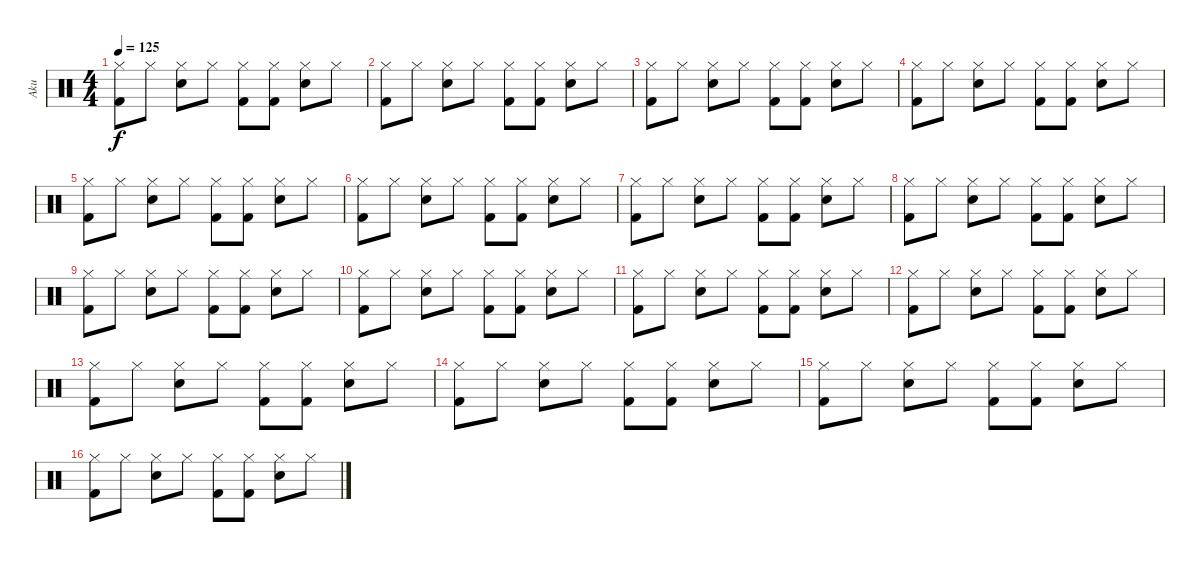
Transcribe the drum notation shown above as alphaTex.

\track ("Aku" "Aku") {instrument percussion}
\staff {score}
\articulation defaults
\ts (4 4)
\tempo 125
\clef neutral
\ks c
("Hi-Hat (closed)" "Kick (hit) 2").8{dy f} "Hi-Hat (closed)".8 ("Hi-Hat (closed)" "Snare (hit) 2").8 "Hi-Hat (closed)".8 ("Hi-Hat (closed)" "Kick (hit) 2").8 ("Hi-Hat (closed)" "Kick (hit) 2").8 ("Hi-Hat (closed)" "Snare (hit) 2").8 "Hi-Hat (closed)".8 |
("Hi-Hat (closed)" "Kick (hit) 2").8 "Hi-Hat (closed)".8 ("Hi-Hat (closed)" "Snare (hit) 2").8 "Hi-Hat (closed)".8 ("Hi-Hat (closed)" "Kick (hit) 2").8 ("Hi-Hat (closed)" "Kick (hit) 2").8 ("Hi-Hat (closed)" "Snare (hit) 2").8 "Hi-Hat (closed)".8 |
("Hi-Hat (closed)" "Kick (hit) 2").8 "Hi-Hat (closed)".8 ("Hi-Hat (closed)" "Snare (hit) 2").8 "Hi-Hat (closed)".8 ("Hi-Hat (closed)" "Kick (hit) 2").8 ("Hi-Hat (closed)" "Kick (hit) 2").8 ("Hi-Hat (closed)" "Snare (hit) 2").8 "Hi-Hat (closed)".8 |
("Hi-Hat (closed)" "Kick (hit) 2").8 "Hi-Hat (closed)".8 ("Hi-Hat (closed)" "Snare (hit) 2").8 "Hi-Hat (closed)".8 ("Hi-Hat (closed)" "Kick (hit) 2").8 ("Hi-Hat (closed)" "Kick (hit) 2").8 ("Hi-Hat (closed)" "Snare (hit) 2").8 "Hi-Hat (closed)".8 |
("Hi-Hat (closed)" "Kick (hit) 2").8 "Hi-Hat (closed)".8 ("Hi-Hat (closed)" "Snare (hit) 2").8 "Hi-Hat (closed)".8 ("Hi-Hat (closed)" "Kick (hit) 2").8 ("Hi-Hat (closed)" "Kick (hit) 2").8 ("Hi-Hat (closed)" "Snare (hit) 2").8 "Hi-Hat (closed)".8 |
("Hi-Hat (closed)" "Kick (hit) 2").8 "Hi-Hat (closed)".8 ("Hi-Hat (closed)" "Snare (hit) 2").8 "Hi-Hat (closed)".8 ("Hi-Hat (closed)" "Kick (hit) 2").8 ("Hi-Hat (closed)" "Kick (hit) 2").8 ("Hi-Hat (closed)" "Snare (hit) 2").8 "Hi-Hat (closed)".8 |
("Hi-Hat (closed)" "Kick (hit) 2").8 "Hi-Hat (closed)".8 ("Hi-Hat (closed)" "Snare (hit) 2").8 "Hi-Hat (closed)".8 ("Hi-Hat (closed)" "Kick (hit) 2").8 ("Hi-Hat (closed)" "Kick (hit) 2").8 ("Hi-Hat (closed)" "Snare (hit) 2").8 "Hi-Hat (closed)".8 |
("Hi-Hat (closed)" "Kick (hit) 2").8 "Hi-Hat (closed)".8 ("Hi-Hat (closed)" "Snare (hit) 2").8 "Hi-Hat (closed)".8 ("Hi-Hat (closed)" "Kick (hit) 2").8 ("Hi-Hat (closed)" "Kick (hit) 2").8 ("Hi-Hat (closed)" "Snare (hit) 2").8 "Hi-Hat (closed)".8 |
("Hi-Hat (closed)" "Kick (hit) 2").8 "Hi-Hat (closed)".8 ("Hi-Hat (closed)" "Snare (hit) 2").8 "Hi-Hat (closed)".8 ("Hi-Hat (closed)" "Kick (hit) 2").8 ("Hi-Hat (closed)" "Kick (hit) 2").8 ("Hi-Hat (closed)" "Snare (hit) 2").8 "Hi-Hat (closed)".8 |
("Hi-Hat (closed)" "Kick (hit) 2").8 "Hi-Hat (closed)".8 ("Hi-Hat (closed)" "Snare (hit) 2").8 "Hi-Hat (closed)".8 ("Hi-Hat (closed)" "Kick (hit) 2").8 ("Hi-Hat (closed)" "Kick (hit) 2").8 ("Hi-Hat (closed)" "Snare (hit) 2").8 "Hi-Hat (closed)".8 |
("Hi-Hat (closed)" "Kick (hit) 2").8 "Hi-Hat (closed)".8 ("Hi-Hat (closed)" "Snare (hit) 2").8 "Hi-Hat (closed)".8 ("Hi-Hat (closed)" "Kick (hit) 2").8 ("Hi-Hat (closed)" "Kick (hit) 2").8 ("Hi-Hat (closed)" "Snare (hit) 2").8 "Hi-Hat (closed)".8 |
("Hi-Hat (closed)" "Kick (hit) 2").8 "Hi-Hat (closed)".8 ("Hi-Hat (closed)" "Snare (hit) 2").8 "Hi-Hat (closed)".8 ("Hi-Hat (closed)" "Kick (hit) 2").8 ("Hi-Hat (closed)" "Kick (hit) 2").8 ("Hi-Hat (closed)" "Snare (hit) 2").8 "Hi-Hat (closed)".8 |
("Hi-Hat (closed)" "Kick (hit) 2").8 "Hi-Hat (closed)".8 ("Hi-Hat (closed)" "Snare (hit) 2").8 "Hi-Hat (closed)".8 ("Hi-Hat (closed)" "Kick (hit) 2").8 ("Hi-Hat (closed)" "Kick (hit) 2").8 ("Hi-Hat (closed)" "Snare (hit) 2").8 "Hi-Hat (closed)".8 |
("Hi-Hat (closed)" "Kick (hit) 2").8 "Hi-Hat (closed)".8 ("Hi-Hat (closed)" "Snare (hit) 2").8 "Hi-Hat (closed)".8 ("Hi-Hat (closed)" "Kick (hit) 2").8 ("Hi-Hat (closed)" "Kick (hit) 2").8 ("Hi-Hat (closed)" "Snare (hit) 2").8 "Hi-Hat (closed)".8 |
("Hi-Hat (closed)" "Kick (hit) 2").8 "Hi-Hat (closed)".8 ("Hi-Hat (closed)" "Snare (hit) 2").8 "Hi-Hat (closed)".8 ("Hi-Hat (closed)" "Kick (hit) 2").8 ("Hi-Hat (closed)" "Kick (hit) 2").8 ("Hi-Hat (closed)" "Snare (hit) 2").8 "Hi-Hat (closed)".8 |
("Hi-Hat (closed)" "Kick (hit) 2").8 "Hi-Hat (closed)".8 ("Hi-Hat (closed)" "Snare (hit) 2").8 "Hi-Hat (closed)".8 ("Hi-Hat (closed)" "Kick (hit) 2").8 ("Hi-Hat (closed)" "Kick (hit) 2").8 ("Hi-Hat (closed)" "Snare (hit) 2").8 "Hi-Hat (closed)".8
